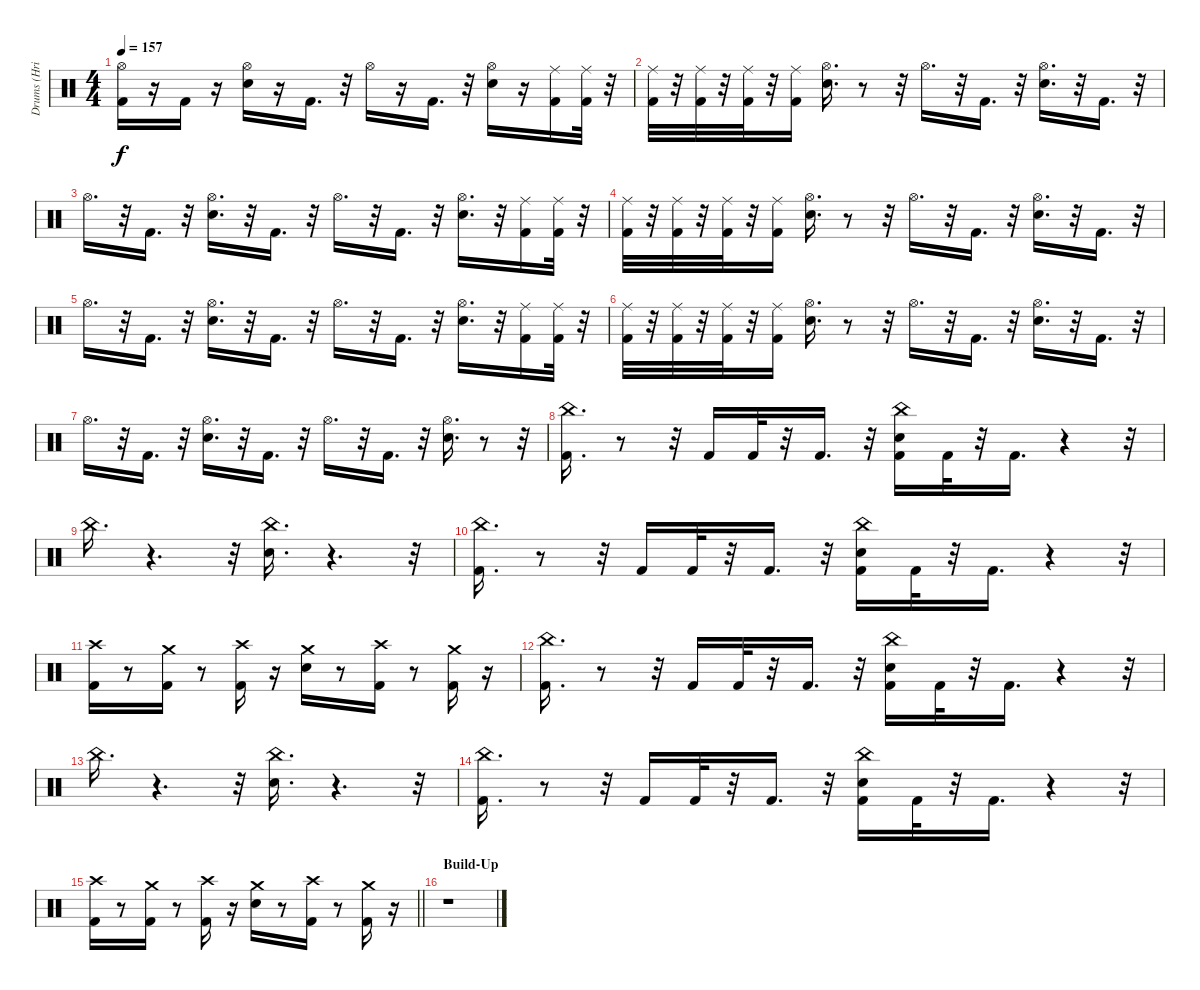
\track ("Drums (Hriso)" "Drums (Hri") {instrument percussion}
\staff {score}
\articulation defaults
\ts (4 4)
\tempo 157
\clef neutral
\ks c
("Hi-Hat (open)" "Kick (hit) 2").16{dy f} r.16 "Kick (hit) 2".16 r.16 ("Hi-Hat (open)" "Snare (hit) 2").16 r.16 "Kick (hit) 2".16{d} r.32 "Hi-Hat (open)".16 r.16 "Kick (hit) 2".16{d} r.32 ("Hi-Hat (open)" "Snare (hit) 2").16 r.16 ("Kick (hit) 2" "Ride (middle)").16 ("Kick (hit) 2" "Ride (middle)").32 r.32 |
("Kick (hit) 2" "Ride (middle)").32 r.32 ("Kick (hit) 2" "Ride (middle)").32 r.32 ("Kick (hit) 2" "Ride (middle)").32 r.32 ("Kick (hit) 2" "Ride (middle)").16 ("Hi-Hat (open)" "Snare (hit) 2").16{d} r.8 r.32 "Hi-Hat (open)".16{d} r.32 "Kick (hit) 2".16{d} r.32 ("Hi-Hat (open)" "Snare (hit) 2").16{d} r.32 "Kick (hit) 2".16{d} r.32 |
"Hi-Hat (open)".16{d} r.32 "Kick (hit) 2".16{d} r.32 ("Hi-Hat (open)" "Snare (hit) 2").16{d} r.32 "Kick (hit) 2".16{d} r.32 "Hi-Hat (open)".16{d} r.32 "Kick (hit) 2".16{d} r.32 ("Hi-Hat (open)" "Snare (hit) 2").16{d} r.32 ("Kick (hit) 2" "Ride (middle)").16 ("Kick (hit) 2" "Ride (middle)").32 r.32 |
("Kick (hit) 2" "Ride (middle)").32 r.32 ("Kick (hit) 2" "Ride (middle)").32 r.32 ("Kick (hit) 2" "Ride (middle)").32 r.32 ("Kick (hit) 2" "Ride (middle)").16 ("Hi-Hat (open)" "Snare (hit) 2").16{d} r.8 r.32 "Hi-Hat (open)".16{d} r.32 "Kick (hit) 2".16{d} r.32 ("Hi-Hat (open)" "Snare (hit) 2").16{d} r.32 "Kick (hit) 2".16{d} r.32 |
"Hi-Hat (open)".16{d} r.32 "Kick (hit) 2".16{d} r.32 ("Hi-Hat (open)" "Snare (hit) 2").16{d} r.32 "Kick (hit) 2".16{d} r.32 "Hi-Hat (open)".16{d} r.32 "Kick (hit) 2".16{d} r.32 ("Hi-Hat (open)" "Snare (hit) 2").16{d} r.32 ("Kick (hit) 2" "Ride (middle)").16 ("Kick (hit) 2" "Ride (middle)").32 r.32 |
("Kick (hit) 2" "Ride (middle)").32 r.32 ("Kick (hit) 2" "Ride (middle)").32 r.32 ("Kick (hit) 2" "Ride (middle)").32 r.32 ("Kick (hit) 2" "Ride (middle)").16 ("Hi-Hat (open)" "Snare (hit) 2").16{d} r.8 r.32 "Hi-Hat (open)".16{d} r.32 "Kick (hit) 2".16{d} r.32 ("Hi-Hat (open)" "Snare (hit) 2").16{d} r.32 "Kick (hit) 2".16{d} r.32 |
"Hi-Hat (open)".16{d} r.32 "Kick (hit) 2".16{d} r.32 ("Hi-Hat (open)" "Snare (hit) 2").16{d} r.32 "Kick (hit) 2".16{d} r.32 "Hi-Hat (open)".16{d} r.32 "Kick (hit) 2".16{d} r.32 ("Snare (hit) 2" "Hi-Hat (open)").16{d} r.8 r.32 |
("Kick (hit) 2" "China (hit)").16{d} r.8 r.32 "Kick (hit) 2".16 "Kick (hit) 2".32 r.32 "Kick (hit) 2".16{d} r.32 ("China (hit)" "Kick (hit) 2" "Snare (hit) 2").16 "Kick (hit) 2".32 r.32 "Kick (hit) 2".16{d} r.4 r.32 |
"China (hit)".16{d} r.4{d} r.32 ("Snare (hit) 2" "China (hit)").16{d} r.4{d} r.32 |
("China (hit)" "Kick (hit) 2").16{d} r.8 r.32 "Kick (hit) 2".16 "Kick (hit) 2".32 r.32 "Kick (hit) 2".16{d} r.32 ("Snare (hit) 2" "Kick (hit) 2" "China (hit)").16 "Kick (hit) 2".32 r.32 "Kick (hit) 2".16{d} r.4 r.32 |
("Kick (hit) 2" "Crash high (hit)").16 r.8 ("Kick (hit) 2" "Crash medium (hit)").16 r.8 ("Kick (hit) 2" "Crash high (hit)").16 r.16 ("Snare (hit) 2" "Crash medium (hit)").16 r.8 ("Kick (hit) 2" "Crash high (hit)").16 r.8 ("Kick (hit) 2" "Crash medium (hit)").16 r.16 |
("Kick (hit) 2" "China (hit)").16{d} r.8 r.32 "Kick (hit) 2".16 "Kick (hit) 2".32 r.32 "Kick (hit) 2".16{d} r.32 ("China (hit)" "Kick (hit) 2" "Snare (hit) 2").16 "Kick (hit) 2".32 r.32 "Kick (hit) 2".16{d} r.4 r.32 |
"China (hit)".16{d} r.4{d} r.32 ("Snare (hit) 2" "China (hit)").16{d} r.4{d} r.32 |
("China (hit)" "Kick (hit) 2").16{d} r.8 r.32 "Kick (hit) 2".16 "Kick (hit) 2".32 r.32 "Kick (hit) 2".16{d} r.32 ("Snare (hit) 2" "Kick (hit) 2" "China (hit)").16 "Kick (hit) 2".32 r.32 "Kick (hit) 2".16{d} r.4 r.32 |
\barLineRight lightlight
("Kick (hit) 2" "Crash high (hit)").16 r.8 ("Kick (hit) 2" "Crash medium (hit)").16 r.8 ("Kick (hit) 2" "Crash high (hit)").16 r.16 ("Snare (hit) 2" "Crash medium (hit)").16 r.8 ("Kick (hit) 2" "Crash high (hit)").16 r.8 ("Kick (hit) 2" "Crash medium (hit)").16 r.16 |
\section ("" "Build-Up")
r.1
